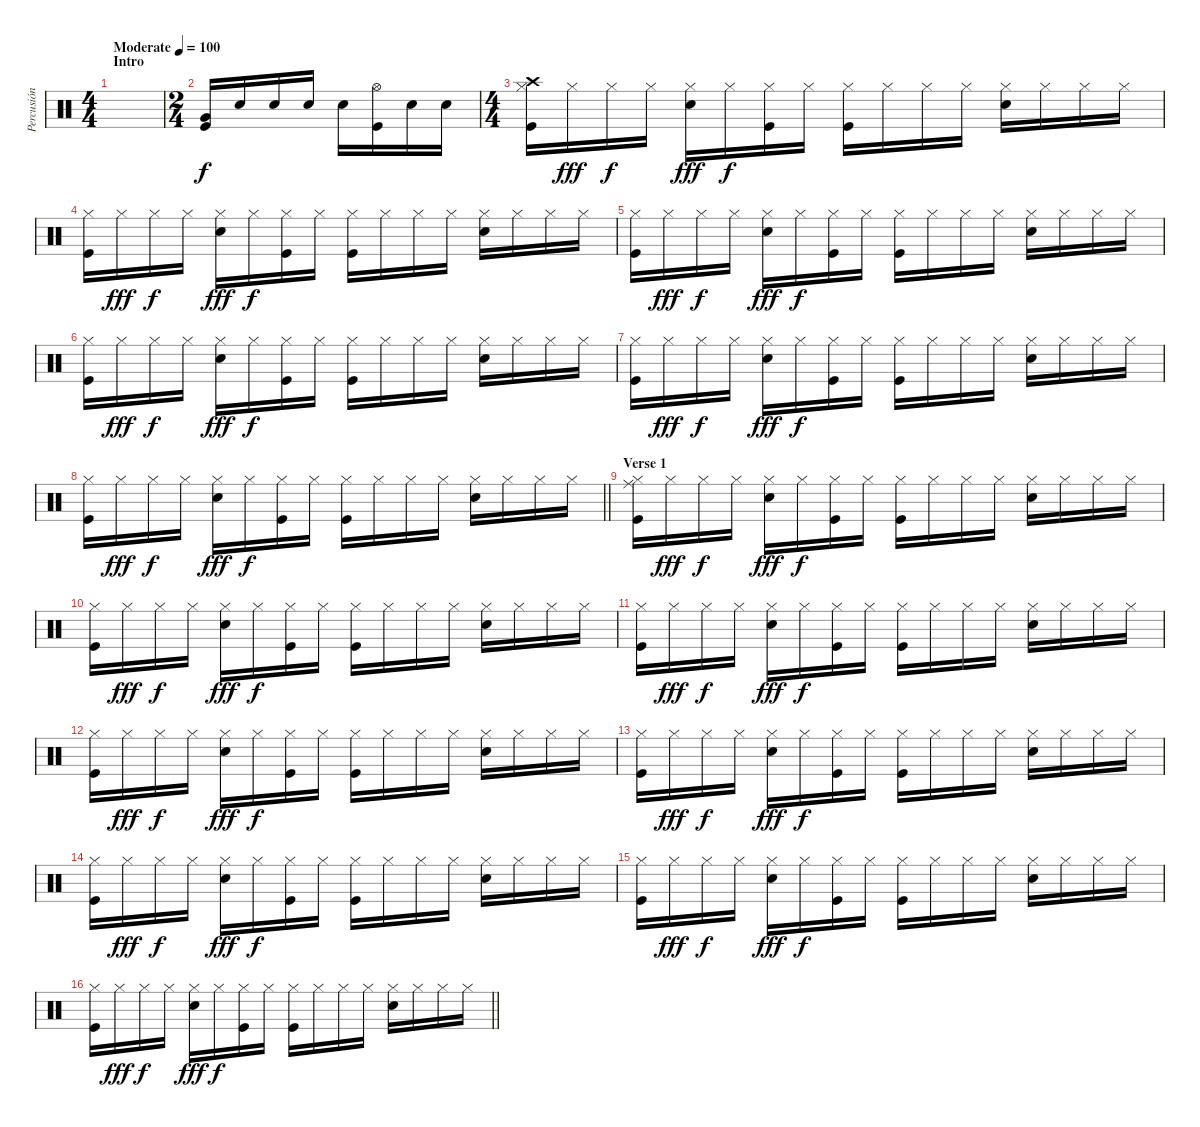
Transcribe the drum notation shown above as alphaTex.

\track ("Percusión" "Percusión") {instrument percussion}
\staff {score}
\articulation defaults
\ts (4 4)
\section ("" "Intro")
\tempo (100 "Moderate")
\clef neutral
\ks c
|
\ts (2 4)
("Very Low Tom (hit)" "Kick (hit)").16 "Electric Snare (hit)".16 "Snare (hit) 2".16 "Electric Snare (hit)".16 "Electric Snare (hit)".16 ("Hi-Hat (open)" "Kick (hit)").16 "Snare (hit) 2".16 "Snare (hit) 2".16 |
\ts (4 4)
("Crash high (hit)" "Hi-Hat (closed)" "Kick (hit)").16{dy f} "Hi-Hat (closed)".16{dy fff} "Hi-Hat (closed)".16{dy f} "Hi-Hat (closed)".16 ("Snare (hit) 2" "Hi-Hat (closed)").16{dy fff} "Hi-Hat (closed)".16{dy f} ("Hi-Hat (closed)" "Kick (hit)").16 "Hi-Hat (closed)".16 ("Kick (hit)" "Hi-Hat (closed)").16 "Hi-Hat (closed)".16 "Hi-Hat (closed)".16 "Hi-Hat (closed)".16 ("Snare (hit) 2" "Hi-Hat (closed)").16 "Hi-Hat (closed)".16 "Hi-Hat (closed)".16 "Hi-Hat (closed)".16 |
("Hi-Hat (closed)" "Kick (hit)").16 "Hi-Hat (closed)".16{dy fff} "Hi-Hat (closed)".16{dy f} "Hi-Hat (closed)".16 ("Snare (hit) 2" "Hi-Hat (closed)").16{dy fff} "Hi-Hat (closed)".16{dy f} ("Hi-Hat (closed)" "Kick (hit)").16 "Hi-Hat (closed)".16 ("Kick (hit)" "Hi-Hat (closed)").16 "Hi-Hat (closed)".16 "Hi-Hat (closed)".16 "Hi-Hat (closed)".16 ("Snare (hit) 2" "Hi-Hat (closed)").16 "Hi-Hat (closed)".16 "Hi-Hat (closed)".16 "Hi-Hat (closed)".16 |
("Hi-Hat (closed)" "Kick (hit)").16 "Hi-Hat (closed)".16{dy fff} "Hi-Hat (closed)".16{dy f} "Hi-Hat (closed)".16 ("Snare (hit) 2" "Hi-Hat (closed)").16{dy fff} "Hi-Hat (closed)".16{dy f} ("Hi-Hat (closed)" "Kick (hit)").16 "Hi-Hat (closed)".16 ("Kick (hit)" "Hi-Hat (closed)").16 "Hi-Hat (closed)".16 "Hi-Hat (closed)".16 "Hi-Hat (closed)".16 ("Snare (hit) 2" "Hi-Hat (closed)").16 "Hi-Hat (closed)".16 "Hi-Hat (closed)".16 "Hi-Hat (closed)".16 |
("Hi-Hat (closed)" "Kick (hit)").16 "Hi-Hat (closed)".16{dy fff} "Hi-Hat (closed)".16{dy f} "Hi-Hat (closed)".16 ("Snare (hit) 2" "Hi-Hat (closed)").16{dy fff} "Hi-Hat (closed)".16{dy f} ("Hi-Hat (closed)" "Kick (hit)").16 "Hi-Hat (closed)".16 ("Kick (hit)" "Hi-Hat (closed)").16 "Hi-Hat (closed)".16 "Hi-Hat (closed)".16 "Hi-Hat (closed)".16 ("Snare (hit) 2" "Hi-Hat (closed)").16 "Hi-Hat (closed)".16 "Hi-Hat (closed)".16 "Hi-Hat (closed)".16 |
("Hi-Hat (closed)" "Kick (hit)").16 "Hi-Hat (closed)".16{dy fff} "Hi-Hat (closed)".16{dy f} "Hi-Hat (closed)".16 ("Snare (hit) 2" "Hi-Hat (closed)").16{dy fff} "Hi-Hat (closed)".16{dy f} ("Hi-Hat (closed)" "Kick (hit)").16 "Hi-Hat (closed)".16 ("Kick (hit)" "Hi-Hat (closed)").16 "Hi-Hat (closed)".16 "Hi-Hat (closed)".16 "Hi-Hat (closed)".16 ("Snare (hit) 2" "Hi-Hat (closed)").16 "Hi-Hat (closed)".16 "Hi-Hat (closed)".16 "Hi-Hat (closed)".16 |
\barLineRight lightlight
("Hi-Hat (closed)" "Kick (hit)").16 "Hi-Hat (closed)".16{dy fff} "Hi-Hat (closed)".16{dy f} "Hi-Hat (closed)".16 ("Snare (hit) 2" "Hi-Hat (closed)").16{dy fff} "Hi-Hat (closed)".16{dy f} ("Hi-Hat (closed)" "Kick (hit)").16 "Hi-Hat (closed)".16 ("Kick (hit)" "Hi-Hat (closed)").16 "Hi-Hat (closed)".16 "Hi-Hat (closed)".16 "Hi-Hat (closed)".16 ("Snare (hit) 2" "Hi-Hat (closed)").16 "Hi-Hat (closed)".16 "Hi-Hat (closed)".16 "Hi-Hat (closed)".16 |
\section ("" "Verse 1")
("Ride (middle)" "Hi-Hat (closed)" "Kick (hit)").16 "Hi-Hat (closed)".16{dy fff} "Hi-Hat (closed)".16{dy f} "Hi-Hat (closed)".16 ("Snare (hit) 2" "Hi-Hat (closed)").16{dy fff} "Hi-Hat (closed)".16{dy f} ("Hi-Hat (closed)" "Kick (hit)").16 "Hi-Hat (closed)".16 ("Kick (hit)" "Hi-Hat (closed)").16 "Hi-Hat (closed)".16 "Hi-Hat (closed)".16 "Hi-Hat (closed)".16 ("Snare (hit) 2" "Hi-Hat (closed)").16 "Hi-Hat (closed)".16 "Hi-Hat (closed)".16 "Hi-Hat (closed)".16 |
("Hi-Hat (closed)" "Kick (hit)").16 "Hi-Hat (closed)".16{dy fff} "Hi-Hat (closed)".16{dy f} "Hi-Hat (closed)".16 ("Snare (hit) 2" "Hi-Hat (closed)").16{dy fff} "Hi-Hat (closed)".16{dy f} ("Hi-Hat (closed)" "Kick (hit)").16 "Hi-Hat (closed)".16 ("Kick (hit)" "Hi-Hat (closed)").16 "Hi-Hat (closed)".16 "Hi-Hat (closed)".16 "Hi-Hat (closed)".16 ("Snare (hit) 2" "Hi-Hat (closed)").16 "Hi-Hat (closed)".16 "Hi-Hat (closed)".16 "Hi-Hat (closed)".16 |
("Hi-Hat (closed)" "Kick (hit)").16 "Hi-Hat (closed)".16{dy fff} "Hi-Hat (closed)".16{dy f} "Hi-Hat (closed)".16 ("Snare (hit) 2" "Hi-Hat (closed)").16{dy fff} "Hi-Hat (closed)".16{dy f} ("Hi-Hat (closed)" "Kick (hit)").16 "Hi-Hat (closed)".16 ("Kick (hit)" "Hi-Hat (closed)").16 "Hi-Hat (closed)".16 "Hi-Hat (closed)".16 "Hi-Hat (closed)".16 ("Snare (hit) 2" "Hi-Hat (closed)").16 "Hi-Hat (closed)".16 "Hi-Hat (closed)".16 "Hi-Hat (closed)".16 |
("Hi-Hat (closed)" "Kick (hit)").16 "Hi-Hat (closed)".16{dy fff} "Hi-Hat (closed)".16{dy f} "Hi-Hat (closed)".16 ("Snare (hit) 2" "Hi-Hat (closed)").16{dy fff} "Hi-Hat (closed)".16{dy f} ("Hi-Hat (closed)" "Kick (hit)").16 "Hi-Hat (closed)".16 ("Kick (hit)" "Hi-Hat (closed)").16 "Hi-Hat (closed)".16 "Hi-Hat (closed)".16 "Hi-Hat (closed)".16 ("Snare (hit) 2" "Hi-Hat (closed)").16 "Hi-Hat (closed)".16 "Hi-Hat (closed)".16 "Hi-Hat (closed)".16 |
("Hi-Hat (closed)" "Kick (hit)").16 "Hi-Hat (closed)".16{dy fff} "Hi-Hat (closed)".16{dy f} "Hi-Hat (closed)".16 ("Snare (hit) 2" "Hi-Hat (closed)").16{dy fff} "Hi-Hat (closed)".16{dy f} ("Hi-Hat (closed)" "Kick (hit)").16 "Hi-Hat (closed)".16 ("Kick (hit)" "Hi-Hat (closed)").16 "Hi-Hat (closed)".16 "Hi-Hat (closed)".16 "Hi-Hat (closed)".16 ("Snare (hit) 2" "Hi-Hat (closed)").16 "Hi-Hat (closed)".16 "Hi-Hat (closed)".16 "Hi-Hat (closed)".16 |
("Hi-Hat (closed)" "Kick (hit)").16 "Hi-Hat (closed)".16{dy fff} "Hi-Hat (closed)".16{dy f} "Hi-Hat (closed)".16 ("Snare (hit) 2" "Hi-Hat (closed)").16{dy fff} "Hi-Hat (closed)".16{dy f} ("Hi-Hat (closed)" "Kick (hit)").16 "Hi-Hat (closed)".16 ("Kick (hit)" "Hi-Hat (closed)").16 "Hi-Hat (closed)".16 "Hi-Hat (closed)".16 "Hi-Hat (closed)".16 ("Snare (hit) 2" "Hi-Hat (closed)").16 "Hi-Hat (closed)".16 "Hi-Hat (closed)".16 "Hi-Hat (closed)".16 |
("Hi-Hat (closed)" "Kick (hit)").16 "Hi-Hat (closed)".16{dy fff} "Hi-Hat (closed)".16{dy f} "Hi-Hat (closed)".16 ("Snare (hit) 2" "Hi-Hat (closed)").16{dy fff} "Hi-Hat (closed)".16{dy f} ("Hi-Hat (closed)" "Kick (hit)").16 "Hi-Hat (closed)".16 ("Kick (hit)" "Hi-Hat (closed)").16 "Hi-Hat (closed)".16 "Hi-Hat (closed)".16 "Hi-Hat (closed)".16 ("Snare (hit) 2" "Hi-Hat (closed)").16 "Hi-Hat (closed)".16 "Hi-Hat (closed)".16 "Hi-Hat (closed)".16 |
\barLineRight lightlight
("Hi-Hat (closed)" "Kick (hit)").16 "Hi-Hat (closed)".16{dy fff} "Hi-Hat (closed)".16{dy f} "Hi-Hat (closed)".16 ("Snare (hit) 2" "Hi-Hat (closed)").16{dy fff} "Hi-Hat (closed)".16{dy f} ("Hi-Hat (closed)" "Kick (hit)").16 "Hi-Hat (closed)".16 ("Kick (hit)" "Hi-Hat (closed)").16 "Hi-Hat (closed)".16 "Hi-Hat (closed)".16 "Hi-Hat (closed)".16 ("Snare (hit) 2" "Hi-Hat (closed)").16 "Hi-Hat (closed)".16 "Hi-Hat (closed)".16 "Hi-Hat (closed)".16
